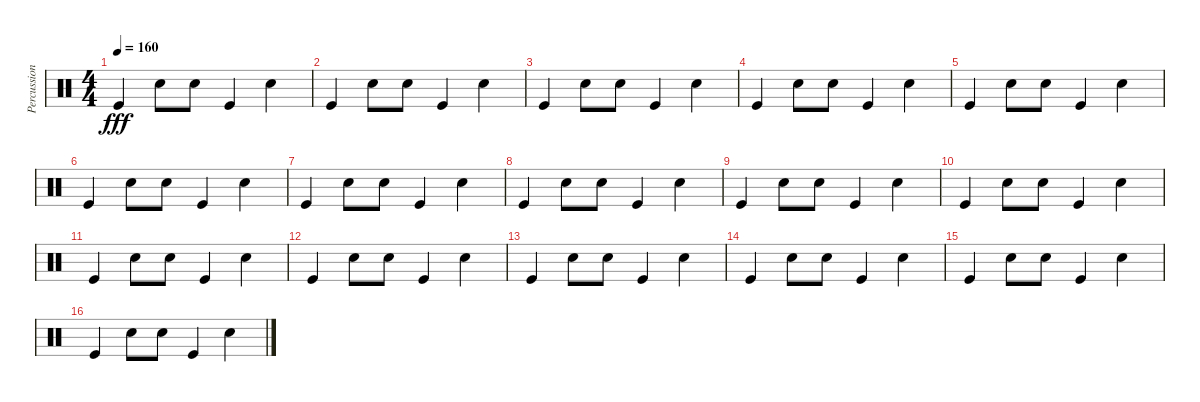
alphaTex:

\track ("Percussions" "Percussion") {instrument percussion}
\staff {score}
\articulation defaults
\ts (4 4)
\tempo 160
\clef neutral
\ks c "Kick (hit)".4{dy fff} "Snare (hit) 2".8 "Snare (hit) 2".8 "Kick (hit)".4 "Snare (hit) 2".4
|
"Kick (hit)".4 "Snare (hit) 2".8 "Snare (hit) 2".8 "Kick (hit)".4 "Snare (hit) 2".4 |
"Kick (hit)".4 "Snare (hit) 2".8 "Snare (hit) 2".8 "Kick (hit)".4 "Snare (hit) 2".4 |
"Kick (hit)".4 "Snare (hit) 2".8 "Snare (hit) 2".8 "Kick (hit)".4 "Snare (hit) 2".4 |
"Kick (hit)".4 "Snare (hit) 2".8 "Snare (hit) 2".8 "Kick (hit)".4 "Snare (hit) 2".4 |
"Kick (hit)".4 "Snare (hit) 2".8 "Snare (hit) 2".8 "Kick (hit)".4 "Snare (hit) 2".4 |
"Kick (hit)".4 "Snare (hit) 2".8 "Snare (hit) 2".8 "Kick (hit)".4 "Snare (hit) 2".4 |
"Kick (hit)".4 "Snare (hit) 2".8 "Snare (hit) 2".8 "Kick (hit)".4 "Snare (hit) 2".4 |
"Kick (hit)".4 "Snare (hit) 2".8 "Snare (hit) 2".8 "Kick (hit)".4 "Snare (hit) 2".4 |
"Kick (hit)".4 "Snare (hit) 2".8 "Snare (hit) 2".8 "Kick (hit)".4 "Snare (hit) 2".4 |
"Kick (hit)".4 "Snare (hit) 2".8 "Snare (hit) 2".8 "Kick (hit)".4 "Snare (hit) 2".4 |
"Kick (hit)".4 "Snare (hit) 2".8 "Snare (hit) 2".8 "Kick (hit)".4 "Snare (hit) 2".4 |
"Kick (hit)".4 "Snare (hit) 2".8 "Snare (hit) 2".8 "Kick (hit)".4 "Snare (hit) 2".4 |
"Kick (hit)".4 "Snare (hit) 2".8 "Snare (hit) 2".8 "Kick (hit)".4 "Snare (hit) 2".4 |
"Kick (hit)".4 "Snare (hit) 2".8 "Snare (hit) 2".8 "Kick (hit)".4 "Snare (hit) 2".4 |
"Kick (hit)".4 "Snare (hit) 2".8 "Snare (hit) 2".8 "Kick (hit)".4 "Snare (hit) 2".4
